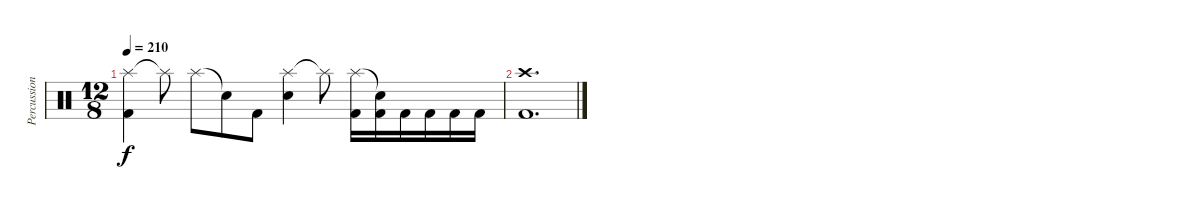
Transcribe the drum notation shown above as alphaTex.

\track ("Percussions" "Percussion") {instrument percussion}
\staff {score}
\articulation defaults
\ts (12 8)
\tempo 210
\clef neutral
\ks c
("Splash (hit)" "Kick (hit) 2").4{dy f} "Splash (hit)"{t}.8 "Splash (hit)".8 "Snare (hit)"{t}.8 "Kick (hit) 2".8 ("Splash (hit)" "Snare (hit) 2").4 "Splash (hit)"{t}.8 ("Splash (hit)" "Kick (hit) 2").16 ("Snare (hit)"{t} "Kick (hit) 2").16 "Kick (hit) 2".16 "Kick (hit) 2".16 "Kick (hit) 2".16 "Kick (hit) 2".16 |
("Crash high (hit)" "Kick (hit) 2").1{d}
